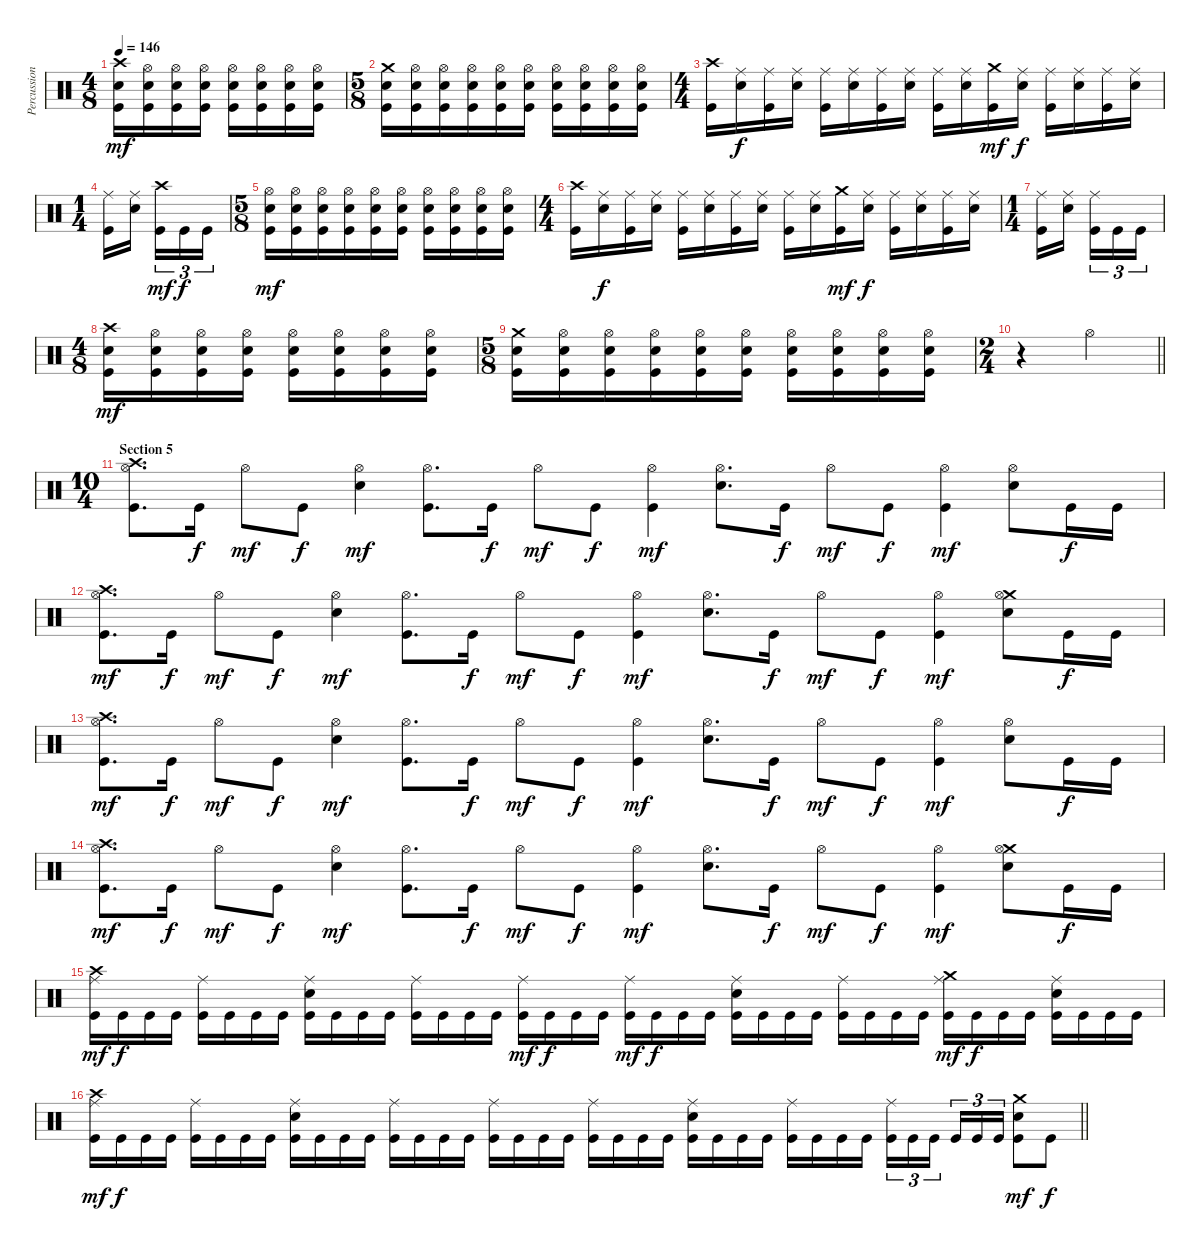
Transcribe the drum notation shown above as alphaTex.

\track ("Percussion" "Percussion") {instrument percussion}
\staff {score}
\articulation defaults
\ts (4 8)
\tempo 146
\clef neutral
\ks c
("Crash high (hit)" "Electric Snare (hit)" "Kick (hit)").16{dy mf} ("Hi-Hat (open)" "Electric Snare (hit)" "Kick (hit)").16 ("Hi-Hat (open)" "Electric Snare (hit)" "Kick (hit)").16 ("Hi-Hat (open)" "Electric Snare (hit)" "Kick (hit)").16 ("Hi-Hat (open)" "Electric Snare (hit)" "Kick (hit)").16 ("Hi-Hat (open)" "Electric Snare (hit)" "Kick (hit)").16 ("Hi-Hat (open)" "Electric Snare (hit)" "Kick (hit)").16 ("Hi-Hat (open)" "Electric Snare (hit)" "Kick (hit)").16 |
\ts (5 8)
("Crash medium (hit)" "Electric Snare (hit)" "Kick (hit)").16 ("Hi-Hat (open)" "Electric Snare (hit)" "Kick (hit)").16 ("Hi-Hat (open)" "Electric Snare (hit)" "Kick (hit)").16 ("Hi-Hat (open)" "Electric Snare (hit)" "Kick (hit)").16 ("Hi-Hat (open)" "Electric Snare (hit)" "Kick (hit)").16 ("Hi-Hat (open)" "Electric Snare (hit)" "Kick (hit)").16 ("Hi-Hat (open)" "Electric Snare (hit)" "Kick (hit)").16 ("Hi-Hat (open)" "Electric Snare (hit)" "Kick (hit)").16 ("Hi-Hat (open)" "Electric Snare (hit)" "Kick (hit)").16 ("Hi-Hat (open)" "Electric Snare (hit)" "Kick (hit)").16 |
\ts (4 4)
("Crash high (hit)" "Kick (hit)").16 ("Ride (middle)" "Electric Snare (hit)").16{dy f} ("Ride (middle)" "Kick (hit)").16 ("Ride (middle)" "Electric Snare (hit)").16 ("Ride (middle)" "Kick (hit)").16 ("Ride (middle)" "Electric Snare (hit)").16 ("Ride (middle)" "Kick (hit)").16 ("Ride (middle)" "Electric Snare (hit)").16 ("Ride (middle)" "Kick (hit)").16 ("Ride (middle)" "Electric Snare (hit)").16 ("Crash medium (hit)" "Kick (hit)").16{dy mf} ("Ride (middle)" "Electric Snare (hit)").16{dy f} ("Ride (middle)" "Kick (hit)").16 ("Ride (middle)" "Electric Snare (hit)").16 ("Ride (middle)" "Kick (hit)").16 ("Ride (middle)" "Electric Snare (hit)").16 |
\ts (1 4)
("Ride (middle)" "Kick (hit)").16 ("Ride (middle)" "Electric Snare (hit)").16{beam splitsecondary} ("Crash high (hit)" "Kick (hit)").16{tu (3 2) dy mf} "Kick (hit)".16{tu (3 2) dy f} "Kick (hit)".16{tu (3 2)} |
\ts (5 8)
("Hi-Hat (open)" "Electric Snare (hit)" "Kick (hit)").16{dy mf} ("Hi-Hat (open)" "Electric Snare (hit)" "Kick (hit)").16 ("Hi-Hat (open)" "Electric Snare (hit)" "Kick (hit)").16 ("Hi-Hat (open)" "Electric Snare (hit)" "Kick (hit)").16 ("Hi-Hat (open)" "Electric Snare (hit)" "Kick (hit)").16 ("Hi-Hat (open)" "Electric Snare (hit)" "Kick (hit)").16 ("Hi-Hat (open)" "Electric Snare (hit)" "Kick (hit)").16 ("Hi-Hat (open)" "Electric Snare (hit)" "Kick (hit)").16 ("Hi-Hat (open)" "Electric Snare (hit)" "Kick (hit)").16 ("Hi-Hat (open)" "Electric Snare (hit)" "Kick (hit)").16 |
\ts (4 4)
("Crash high (hit)" "Kick (hit)").16 ("Ride (middle)" "Electric Snare (hit)").16{dy f} ("Ride (middle)" "Kick (hit)").16 ("Ride (middle)" "Electric Snare (hit)").16 ("Ride (middle)" "Kick (hit)").16 ("Ride (middle)" "Electric Snare (hit)").16 ("Ride (middle)" "Kick (hit)").16 ("Ride (middle)" "Electric Snare (hit)").16 ("Ride (middle)" "Kick (hit)").16 ("Ride (middle)" "Electric Snare (hit)").16 ("Crash medium (hit)" "Kick (hit)").16{dy mf} ("Ride (middle)" "Electric Snare (hit)").16{dy f} ("Ride (middle)" "Kick (hit)").16 ("Ride (middle)" "Electric Snare (hit)").16 ("Ride (middle)" "Kick (hit)").16 ("Ride (middle)" "Electric Snare (hit)").16 |
\ts (1 4)
("Ride (middle)" "Kick (hit)").16 ("Ride (middle)" "Electric Snare (hit)").16{beam splitsecondary} ("Ride (middle)" "Kick (hit)").16{tu (3 2)} "Kick (hit)".16{tu (3 2)} "Kick (hit)".16{tu (3 2)} |
\ts (4 8)
("Crash high (hit)" "Electric Snare (hit)" "Kick (hit)").16{dy mf} ("Hi-Hat (open)" "Electric Snare (hit)" "Kick (hit)").16 ("Hi-Hat (open)" "Electric Snare (hit)" "Kick (hit)").16 ("Hi-Hat (open)" "Electric Snare (hit)" "Kick (hit)").16 ("Hi-Hat (open)" "Electric Snare (hit)" "Kick (hit)").16 ("Hi-Hat (open)" "Electric Snare (hit)" "Kick (hit)").16 ("Hi-Hat (open)" "Electric Snare (hit)" "Kick (hit)").16 ("Hi-Hat (open)" "Electric Snare (hit)" "Kick (hit)").16 |
\ts (5 8)
("Crash medium (hit)" "Electric Snare (hit)" "Kick (hit)").16 ("Hi-Hat (open)" "Electric Snare (hit)" "Kick (hit)").16 ("Hi-Hat (open)" "Electric Snare (hit)" "Kick (hit)").16 ("Hi-Hat (open)" "Electric Snare (hit)" "Kick (hit)").16 ("Hi-Hat (open)" "Electric Snare (hit)" "Kick (hit)").16 ("Hi-Hat (open)" "Electric Snare (hit)" "Kick (hit)").16 ("Hi-Hat (open)" "Electric Snare (hit)" "Kick (hit)").16 ("Hi-Hat (open)" "Electric Snare (hit)" "Kick (hit)").16 ("Hi-Hat (open)" "Electric Snare (hit)" "Kick (hit)").16 ("Hi-Hat (open)" "Electric Snare (hit)" "Kick (hit)").16 |
\ts (2 4)
\barLineRight lightlight
r.4 "Hi-Hat (open)".4 |
\ts (10 4)
\section ("" "Section 5")
("Crash high (hit)" "Hi-Hat (open)" "Kick (hit)").8{d} "Kick (hit)".16{dy f} "Hi-Hat (open)".8{dy mf} "Kick (hit)".8{dy f} ("Hi-Hat (open)" "Electric Snare (hit)").4{dy mf} ("Hi-Hat (open)" "Kick (hit)").8{d} "Kick (hit)".16{dy f} "Hi-Hat (open)".8{dy mf} "Kick (hit)".8{dy f} ("Hi-Hat (open)" "Kick (hit)").4{dy mf} ("Hi-Hat (open)" "Electric Snare (hit)").8{d} "Kick (hit)".16{dy f} "Hi-Hat (open)".8{dy mf} "Kick (hit)".8{dy f} ("Hi-Hat (open)" "Kick (hit)").4{dy mf} ("Hi-Hat (open)" "Electric Snare (hit)").8 "Kick (hit)".16{dy f} "Kick (hit)".16 |
("Crash high (hit)" "Hi-Hat (open)" "Kick (hit)").8{d dy mf} "Kick (hit)".16{dy f} "Hi-Hat (open)".8{dy mf} "Kick (hit)".8{dy f} ("Hi-Hat (open)" "Electric Snare (hit)").4{dy mf} ("Hi-Hat (open)" "Kick (hit)").8{d} "Kick (hit)".16{dy f} "Hi-Hat (open)".8{dy mf} "Kick (hit)".8{dy f} ("Hi-Hat (open)" "Kick (hit)").4{dy mf} ("Hi-Hat (open)" "Electric Snare (hit)").8{d} "Kick (hit)".16{dy f} "Hi-Hat (open)".8{dy mf} "Kick (hit)".8{dy f} ("Hi-Hat (open)" "Kick (hit)").4{dy mf} ("Crash medium (hit)" "Hi-Hat (open)" "Electric Snare (hit)").8 "Kick (hit)".16{dy f} "Kick (hit)".16 |
("Crash high (hit)" "Hi-Hat (open)" "Kick (hit)").8{d dy mf} "Kick (hit)".16{dy f} "Hi-Hat (open)".8{dy mf} "Kick (hit)".8{dy f} ("Hi-Hat (open)" "Electric Snare (hit)").4{dy mf} ("Hi-Hat (open)" "Kick (hit)").8{d} "Kick (hit)".16{dy f} "Hi-Hat (open)".8{dy mf} "Kick (hit)".8{dy f} ("Hi-Hat (open)" "Kick (hit)").4{dy mf} ("Hi-Hat (open)" "Electric Snare (hit)").8{d} "Kick (hit)".16{dy f} "Hi-Hat (open)".8{dy mf} "Kick (hit)".8{dy f} ("Hi-Hat (open)" "Kick (hit)").4{dy mf} ("Hi-Hat (open)" "Electric Snare (hit)").8 "Kick (hit)".16{dy f} "Kick (hit)".16 |
("Crash high (hit)" "Hi-Hat (open)" "Kick (hit)").8{d dy mf} "Kick (hit)".16{dy f} "Hi-Hat (open)".8{dy mf} "Kick (hit)".8{dy f} ("Hi-Hat (open)" "Electric Snare (hit)").4{dy mf} ("Hi-Hat (open)" "Kick (hit)").8{d} "Kick (hit)".16{dy f} "Hi-Hat (open)".8{dy mf} "Kick (hit)".8{dy f} ("Hi-Hat (open)" "Kick (hit)").4{dy mf} ("Hi-Hat (open)" "Electric Snare (hit)").8{d} "Kick (hit)".16{dy f} "Hi-Hat (open)".8{dy mf} "Kick (hit)".8{dy f} ("Hi-Hat (open)" "Kick (hit)").4{dy mf} ("Crash medium (hit)" "Hi-Hat (open)" "Electric Snare (hit)").8 "Kick (hit)".16{dy f} "Kick (hit)".16 |
("Crash high (hit)" "Ride (middle)" "Kick (hit)").16{dy mf} "Kick (hit)".16{dy f} "Kick (hit)".16 "Kick (hit)".16 ("Ride (middle)" "Kick (hit)").16 "Kick (hit)".16 "Kick (hit)".16 "Kick (hit)".16 ("Ride (middle)" "Electric Snare (hit)" "Kick (hit)").16 "Kick (hit)".16 "Kick (hit)".16 "Kick (hit)".16 ("Ride (middle)" "Kick (hit)").16 "Kick (hit)".16 "Kick (hit)".16 "Kick (hit)".16 ("Ride (middle)" "Kick (hit)").16{dy mf} "Kick (hit)".16{dy f} "Kick (hit)".16 "Kick (hit)".16 ("Ride (middle)" "Kick (hit)").16{dy mf} "Kick (hit)".16{dy f} "Kick (hit)".16 "Kick (hit)".16 ("Ride (middle)" "Electric Snare (hit)" "Kick (hit)").16 "Kick (hit)".16 "Kick (hit)".16 "Kick (hit)".16 ("Ride (middle)" "Kick (hit)").16 "Kick (hit)".16 "Kick (hit)".16 "Kick (hit)".16 ("Crash medium (hit)" "Ride (middle)" "Kick (hit)").16{dy mf} "Kick (hit)".16{dy f} "Kick (hit)".16 "Kick (hit)".16 ("Ride (middle)" "Electric Snare (hit)" "Kick (hit)").16 "Kick (hit)".16 "Kick (hit)".16 "Kick (hit)".16 |
\barLineRight lightlight
("Crash high (hit)" "Ride (middle)" "Kick (hit)").16{dy mf} "Kick (hit)".16{dy f} "Kick (hit)".16 "Kick (hit)".16 ("Ride (middle)" "Kick (hit)").16 "Kick (hit)".16 "Kick (hit)".16 "Kick (hit)".16 ("Ride (middle)" "Electric Snare (hit)" "Kick (hit)").16 "Kick (hit)".16 "Kick (hit)".16 "Kick (hit)".16 ("Ride (middle)" "Kick (hit)").16 "Kick (hit)".16 "Kick (hit)".16 "Kick (hit)".16 ("Ride (middle)" "Kick (hit)").16 "Kick (hit)".16 "Kick (hit)".16 "Kick (hit)".16 ("Ride (middle)" "Kick (hit)").16 "Kick (hit)".16 "Kick (hit)".16 "Kick (hit)".16 ("Ride (middle)" "Electric Snare (hit)" "Kick (hit)").16 "Kick (hit)".16 "Kick (hit)".16 "Kick (hit)".16 ("Ride (middle)" "Kick (hit)").16 "Kick (hit)".16 "Kick (hit)".16 "Kick (hit)".16 ("Ride (middle)" "Kick (hit)").16{tu (3 2)} "Kick (hit)".16{tu (3 2)} "Kick (hit)".16{tu (3 2) beam splitsecondary} "Kick (hit)".16{tu (3 2)} "Kick (hit)".16{tu (3 2)} "Kick (hit)".16{tu (3 2)} ("Crash medium (hit)" "Electric Snare (hit)" "Kick (hit)").8{dy mf} "Kick (hit)".8{dy f}
